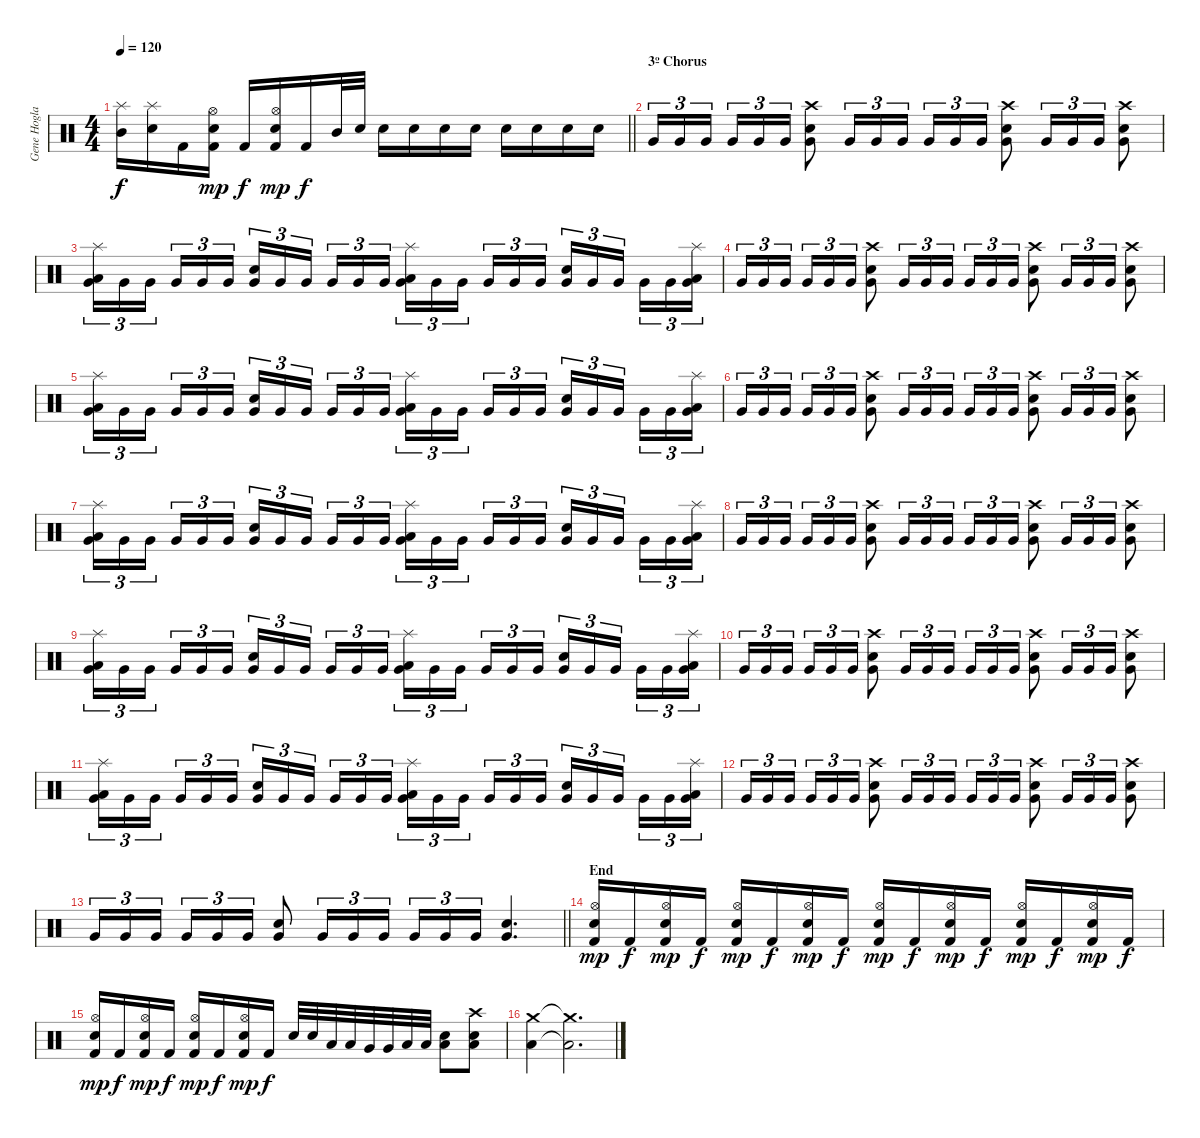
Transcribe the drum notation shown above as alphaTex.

\track ("Gene Hoglan" "Gene Hogla") {instrument percussion}
\staff {score}
\articulation defaults
\ts (4 4)
\tempo 120
\clef neutral
\barLineRight lightlight
\ks c
("Splash (hit)" "Mid Tom (hit)").16{dy f} ("Electric Snare (hit)" "Splash (hit)").16 "Kick (hit) 2".16 ("Hi-Hat (open)" "Snare (hit) 2" "Kick (hit) 2").16{dy mp} "Kick (hit) 2".16{dy f} ("Hi-Hat (open)" "Snare (hit) 2" "Kick (hit) 2").16{dy mp} "Kick (hit) 2".16{dy f} "Mid Tom (hit)".32 "Electric Snare (hit)".32 "Electric Snare (hit)".16 "Electric Snare (hit)".16 "Electric Snare (hit)".16 "Electric Snare (hit)".16 "Electric Snare (hit)".16 "Electric Snare (hit)".16 "Electric Snare (hit)".16 "Electric Snare (hit)".16 |
\section ("" "3º Chorus")
"Very Low Tom (hit)".16{tu (3 2)} "Very Low Tom (hit)".16{tu (3 2)} "Very Low Tom (hit)".16{tu (3 2) beam splitsecondary} "Very Low Tom (hit)".16{tu (3 2)} "Very Low Tom (hit)".16{tu (3 2)} "Very Low Tom (hit)".16{tu (3 2)} ("Very Low Tom (hit)" "Electric Snare (hit)" "Crash high (hit)").8 "Very Low Tom (hit)".16{tu (3 2)} "Very Low Tom (hit)".16{tu (3 2)} "Very Low Tom (hit)".16{tu (3 2)} "Very Low Tom (hit)".16{tu (3 2)} "Very Low Tom (hit)".16{tu (3 2)} "Very Low Tom (hit)".16{tu (3 2)} ("Very Low Tom (hit)" "Electric Snare (hit)" "Crash high (hit)").8 "Very Low Tom (hit)".16{tu (3 2)} "Very Low Tom (hit)".16{tu (3 2)} "Very Low Tom (hit)".16{tu (3 2)} ("Very Low Tom (hit)" "Electric Snare (hit)" "Crash high (hit)").8 |
("Low Tom (hit)" "Very Low Tom (hit)" "Splash (hit)").16{tu (3 2)} "Very Low Tom (hit)".16{tu (3 2)} "Very Low Tom (hit)".16{tu (3 2) beam splitsecondary} "Very Low Tom (hit)".16{tu (3 2)} "Very Low Tom (hit)".16{tu (3 2)} "Very Low Tom (hit)".16{tu (3 2)} ("Very Low Tom (hit)" "Electric Snare (hit)").16{tu (3 2)} "Very Low Tom (hit)".16{tu (3 2)} "Very Low Tom (hit)".16{tu (3 2) beam splitsecondary} "Very Low Tom (hit)".16{tu (3 2)} "Very Low Tom (hit)".16{tu (3 2)} "Very Low Tom (hit)".16{tu (3 2)} ("Low Tom (hit)" "Very Low Tom (hit)" "Splash (hit)").16{tu (3 2)} "Very Low Tom (hit)".16{tu (3 2)} "Very Low Tom (hit)".16{tu (3 2) beam splitsecondary} "Very Low Tom (hit)".16{tu (3 2)} "Very Low Tom (hit)".16{tu (3 2)} "Very Low Tom (hit)".16{tu (3 2)} ("Very Low Tom (hit)" "Electric Snare (hit)").16{tu (3 2)} "Very Low Tom (hit)".16{tu (3 2)} "Very Low Tom (hit)".16{tu (3 2) beam splitsecondary} "Very Low Tom (hit)".16{tu (3 2)} "Very Low Tom (hit)".16{tu (3 2)} ("Low Tom (hit)" "Very Low Tom (hit)" "Splash (hit)").16{tu (3 2)} |
"Very Low Tom (hit)".16{tu (3 2)} "Very Low Tom (hit)".16{tu (3 2)} "Very Low Tom (hit)".16{tu (3 2) beam splitsecondary} "Very Low Tom (hit)".16{tu (3 2)} "Very Low Tom (hit)".16{tu (3 2)} "Very Low Tom (hit)".16{tu (3 2)} ("Very Low Tom (hit)" "Electric Snare (hit)" "Crash high (hit)").8 "Very Low Tom (hit)".16{tu (3 2)} "Very Low Tom (hit)".16{tu (3 2)} "Very Low Tom (hit)".16{tu (3 2)} "Very Low Tom (hit)".16{tu (3 2)} "Very Low Tom (hit)".16{tu (3 2)} "Very Low Tom (hit)".16{tu (3 2)} ("Very Low Tom (hit)" "Electric Snare (hit)" "Crash high (hit)").8 "Very Low Tom (hit)".16{tu (3 2)} "Very Low Tom (hit)".16{tu (3 2)} "Very Low Tom (hit)".16{tu (3 2)} ("Very Low Tom (hit)" "Electric Snare (hit)" "Crash high (hit)").8 |
("Low Tom (hit)" "Very Low Tom (hit)" "Splash (hit)").16{tu (3 2)} "Very Low Tom (hit)".16{tu (3 2)} "Very Low Tom (hit)".16{tu (3 2) beam splitsecondary} "Very Low Tom (hit)".16{tu (3 2)} "Very Low Tom (hit)".16{tu (3 2)} "Very Low Tom (hit)".16{tu (3 2)} ("Very Low Tom (hit)" "Electric Snare (hit)").16{tu (3 2)} "Very Low Tom (hit)".16{tu (3 2)} "Very Low Tom (hit)".16{tu (3 2) beam splitsecondary} "Very Low Tom (hit)".16{tu (3 2)} "Very Low Tom (hit)".16{tu (3 2)} "Very Low Tom (hit)".16{tu (3 2)} ("Low Tom (hit)" "Very Low Tom (hit)" "Splash (hit)").16{tu (3 2)} "Very Low Tom (hit)".16{tu (3 2)} "Very Low Tom (hit)".16{tu (3 2) beam splitsecondary} "Very Low Tom (hit)".16{tu (3 2)} "Very Low Tom (hit)".16{tu (3 2)} "Very Low Tom (hit)".16{tu (3 2)} ("Very Low Tom (hit)" "Electric Snare (hit)").16{tu (3 2)} "Very Low Tom (hit)".16{tu (3 2)} "Very Low Tom (hit)".16{tu (3 2) beam splitsecondary} "Very Low Tom (hit)".16{tu (3 2)} "Very Low Tom (hit)".16{tu (3 2)} ("Low Tom (hit)" "Very Low Tom (hit)" "Splash (hit)").16{tu (3 2)} |
"Very Low Tom (hit)".16{tu (3 2)} "Very Low Tom (hit)".16{tu (3 2)} "Very Low Tom (hit)".16{tu (3 2) beam splitsecondary} "Very Low Tom (hit)".16{tu (3 2)} "Very Low Tom (hit)".16{tu (3 2)} "Very Low Tom (hit)".16{tu (3 2)} ("Very Low Tom (hit)" "Electric Snare (hit)" "Crash high (hit)").8 "Very Low Tom (hit)".16{tu (3 2)} "Very Low Tom (hit)".16{tu (3 2)} "Very Low Tom (hit)".16{tu (3 2)} "Very Low Tom (hit)".16{tu (3 2)} "Very Low Tom (hit)".16{tu (3 2)} "Very Low Tom (hit)".16{tu (3 2)} ("Very Low Tom (hit)" "Electric Snare (hit)" "Crash high (hit)").8 "Very Low Tom (hit)".16{tu (3 2)} "Very Low Tom (hit)".16{tu (3 2)} "Very Low Tom (hit)".16{tu (3 2)} ("Very Low Tom (hit)" "Electric Snare (hit)" "Crash high (hit)").8 |
("Low Tom (hit)" "Very Low Tom (hit)" "Splash (hit)").16{tu (3 2)} "Very Low Tom (hit)".16{tu (3 2)} "Very Low Tom (hit)".16{tu (3 2) beam splitsecondary} "Very Low Tom (hit)".16{tu (3 2)} "Very Low Tom (hit)".16{tu (3 2)} "Very Low Tom (hit)".16{tu (3 2)} ("Very Low Tom (hit)" "Electric Snare (hit)").16{tu (3 2)} "Very Low Tom (hit)".16{tu (3 2)} "Very Low Tom (hit)".16{tu (3 2) beam splitsecondary} "Very Low Tom (hit)".16{tu (3 2)} "Very Low Tom (hit)".16{tu (3 2)} "Very Low Tom (hit)".16{tu (3 2)} ("Low Tom (hit)" "Very Low Tom (hit)" "Splash (hit)").16{tu (3 2)} "Very Low Tom (hit)".16{tu (3 2)} "Very Low Tom (hit)".16{tu (3 2) beam splitsecondary} "Very Low Tom (hit)".16{tu (3 2)} "Very Low Tom (hit)".16{tu (3 2)} "Very Low Tom (hit)".16{tu (3 2)} ("Very Low Tom (hit)" "Electric Snare (hit)").16{tu (3 2)} "Very Low Tom (hit)".16{tu (3 2)} "Very Low Tom (hit)".16{tu (3 2) beam splitsecondary} "Very Low Tom (hit)".16{tu (3 2)} "Very Low Tom (hit)".16{tu (3 2)} ("Low Tom (hit)" "Very Low Tom (hit)" "Splash (hit)").16{tu (3 2)} |
"Very Low Tom (hit)".16{tu (3 2)} "Very Low Tom (hit)".16{tu (3 2)} "Very Low Tom (hit)".16{tu (3 2) beam splitsecondary} "Very Low Tom (hit)".16{tu (3 2)} "Very Low Tom (hit)".16{tu (3 2)} "Very Low Tom (hit)".16{tu (3 2)} ("Very Low Tom (hit)" "Electric Snare (hit)" "Crash high (hit)").8 "Very Low Tom (hit)".16{tu (3 2)} "Very Low Tom (hit)".16{tu (3 2)} "Very Low Tom (hit)".16{tu (3 2)} "Very Low Tom (hit)".16{tu (3 2)} "Very Low Tom (hit)".16{tu (3 2)} "Very Low Tom (hit)".16{tu (3 2)} ("Very Low Tom (hit)" "Electric Snare (hit)" "Crash high (hit)").8 "Very Low Tom (hit)".16{tu (3 2)} "Very Low Tom (hit)".16{tu (3 2)} "Very Low Tom (hit)".16{tu (3 2)} ("Very Low Tom (hit)" "Electric Snare (hit)" "Crash high (hit)").8 |
("Low Tom (hit)" "Very Low Tom (hit)" "Splash (hit)").16{tu (3 2)} "Very Low Tom (hit)".16{tu (3 2)} "Very Low Tom (hit)".16{tu (3 2) beam splitsecondary} "Very Low Tom (hit)".16{tu (3 2)} "Very Low Tom (hit)".16{tu (3 2)} "Very Low Tom (hit)".16{tu (3 2)} ("Very Low Tom (hit)" "Electric Snare (hit)").16{tu (3 2)} "Very Low Tom (hit)".16{tu (3 2)} "Very Low Tom (hit)".16{tu (3 2) beam splitsecondary} "Very Low Tom (hit)".16{tu (3 2)} "Very Low Tom (hit)".16{tu (3 2)} "Very Low Tom (hit)".16{tu (3 2)} ("Low Tom (hit)" "Very Low Tom (hit)" "Splash (hit)").16{tu (3 2)} "Very Low Tom (hit)".16{tu (3 2)} "Very Low Tom (hit)".16{tu (3 2) beam splitsecondary} "Very Low Tom (hit)".16{tu (3 2)} "Very Low Tom (hit)".16{tu (3 2)} "Very Low Tom (hit)".16{tu (3 2)} ("Very Low Tom (hit)" "Electric Snare (hit)").16{tu (3 2)} "Very Low Tom (hit)".16{tu (3 2)} "Very Low Tom (hit)".16{tu (3 2) beam splitsecondary} "Very Low Tom (hit)".16{tu (3 2)} "Very Low Tom (hit)".16{tu (3 2)} ("Low Tom (hit)" "Very Low Tom (hit)" "Splash (hit)").16{tu (3 2)} |
"Very Low Tom (hit)".16{tu (3 2)} "Very Low Tom (hit)".16{tu (3 2)} "Very Low Tom (hit)".16{tu (3 2) beam splitsecondary} "Very Low Tom (hit)".16{tu (3 2)} "Very Low Tom (hit)".16{tu (3 2)} "Very Low Tom (hit)".16{tu (3 2)} ("Very Low Tom (hit)" "Electric Snare (hit)" "Crash high (hit)").8 "Very Low Tom (hit)".16{tu (3 2)} "Very Low Tom (hit)".16{tu (3 2)} "Very Low Tom (hit)".16{tu (3 2)} "Very Low Tom (hit)".16{tu (3 2)} "Very Low Tom (hit)".16{tu (3 2)} "Very Low Tom (hit)".16{tu (3 2)} ("Very Low Tom (hit)" "Electric Snare (hit)" "Crash high (hit)").8 "Very Low Tom (hit)".16{tu (3 2)} "Very Low Tom (hit)".16{tu (3 2)} "Very Low Tom (hit)".16{tu (3 2)} ("Very Low Tom (hit)" "Electric Snare (hit)" "Crash high (hit)").8 |
("Low Tom (hit)" "Very Low Tom (hit)" "Splash (hit)").16{tu (3 2)} "Very Low Tom (hit)".16{tu (3 2)} "Very Low Tom (hit)".16{tu (3 2) beam splitsecondary} "Very Low Tom (hit)".16{tu (3 2)} "Very Low Tom (hit)".16{tu (3 2)} "Very Low Tom (hit)".16{tu (3 2)} ("Very Low Tom (hit)" "Electric Snare (hit)").16{tu (3 2)} "Very Low Tom (hit)".16{tu (3 2)} "Very Low Tom (hit)".16{tu (3 2) beam splitsecondary} "Very Low Tom (hit)".16{tu (3 2)} "Very Low Tom (hit)".16{tu (3 2)} "Very Low Tom (hit)".16{tu (3 2)} ("Low Tom (hit)" "Very Low Tom (hit)" "Splash (hit)").16{tu (3 2)} "Very Low Tom (hit)".16{tu (3 2)} "Very Low Tom (hit)".16{tu (3 2) beam splitsecondary} "Very Low Tom (hit)".16{tu (3 2)} "Very Low Tom (hit)".16{tu (3 2)} "Very Low Tom (hit)".16{tu (3 2)} ("Very Low Tom (hit)" "Electric Snare (hit)").16{tu (3 2)} "Very Low Tom (hit)".16{tu (3 2)} "Very Low Tom (hit)".16{tu (3 2) beam splitsecondary} "Very Low Tom (hit)".16{tu (3 2)} "Very Low Tom (hit)".16{tu (3 2)} ("Low Tom (hit)" "Very Low Tom (hit)" "Splash (hit)").16{tu (3 2)} |
"Very Low Tom (hit)".16{tu (3 2)} "Very Low Tom (hit)".16{tu (3 2)} "Very Low Tom (hit)".16{tu (3 2) beam splitsecondary} "Very Low Tom (hit)".16{tu (3 2)} "Very Low Tom (hit)".16{tu (3 2)} "Very Low Tom (hit)".16{tu (3 2)} ("Very Low Tom (hit)" "Electric Snare (hit)" "Crash high (hit)").8 "Very Low Tom (hit)".16{tu (3 2)} "Very Low Tom (hit)".16{tu (3 2)} "Very Low Tom (hit)".16{tu (3 2)} "Very Low Tom (hit)".16{tu (3 2)} "Very Low Tom (hit)".16{tu (3 2)} "Very Low Tom (hit)".16{tu (3 2)} ("Very Low Tom (hit)" "Electric Snare (hit)" "Crash high (hit)").8 "Very Low Tom (hit)".16{tu (3 2)} "Very Low Tom (hit)".16{tu (3 2)} "Very Low Tom (hit)".16{tu (3 2)} ("Very Low Tom (hit)" "Electric Snare (hit)" "Crash high (hit)").8 |
\barLineRight lightlight "Very Low Tom (hit)".16{tu (3 2)} "Very Low Tom (hit)".16{tu (3 2)} "Very Low Tom (hit)".16{tu (3 2) beam splitsecondary} "Very Low Tom (hit)".16{tu (3 2)} "Very Low Tom (hit)".16{tu (3 2)} "Very Low Tom (hit)".16{tu (3 2)}
("Very Low Tom (hit)" "Electric Snare (hit)").8 "Very Low Tom (hit)".16{tu (3 2)} "Very Low Tom (hit)".16{tu (3 2)} "Very Low Tom (hit)".16{tu (3 2)} "Very Low Tom (hit)".16{tu (3 2)} "Very Low Tom (hit)".16{tu (3 2)} "Very Low Tom (hit)".16{tu (3 2)} ("Very Low Tom (hit)" "Electric Snare (hit)").4{d} |
\section ("" "End")
("Hi-Hat (open)" "Snare (hit) 2" "Kick (hit) 2").16{dy mp} "Kick (hit) 2".16{dy f} ("Hi-Hat (open)" "Snare (hit) 2" "Kick (hit) 2").16{dy mp} "Kick (hit) 2".16{dy f} ("Hi-Hat (open)" "Snare (hit) 2" "Kick (hit) 2").16{dy mp} "Kick (hit) 2".16{dy f} ("Hi-Hat (open)" "Snare (hit) 2" "Kick (hit) 2").16{dy mp} "Kick (hit) 2".16{dy f} ("Hi-Hat (open)" "Snare (hit) 2" "Kick (hit) 2").16{dy mp} "Kick (hit) 2".16{dy f} ("Hi-Hat (open)" "Snare (hit) 2" "Kick (hit) 2").16{dy mp} "Kick (hit) 2".16{dy f} ("Hi-Hat (open)" "Snare (hit) 2" "Kick (hit) 2").16{dy mp} "Kick (hit) 2".16{dy f} ("Hi-Hat (open)" "Snare (hit) 2" "Kick (hit) 2").16{dy mp} "Kick (hit) 2".16{dy f} |
("Hi-Hat (open)" "Snare (hit) 2" "Kick (hit) 2").16{dy mp} "Kick (hit) 2".16{dy f} ("Hi-Hat (open)" "Snare (hit) 2" "Kick (hit) 2").16{dy mp} "Kick (hit) 2".16{dy f} ("Hi-Hat (open)" "Snare (hit) 2" "Kick (hit) 2").16{dy mp} "Kick (hit) 2".16{dy f} ("Hi-Hat (open)" "Snare (hit) 2" "Kick (hit) 2").16{dy mp} "Kick (hit) 2".16{dy f} "Electric Snare (hit)".32 "Electric Snare (hit)".32 "Low Tom (hit)".32 "Low Tom (hit)".32 "Very Low Tom (hit)".32 "Very Low Tom (hit)".32 "Low Floor Tom (hit)".32 "Low Floor Tom (hit)".32 ("Electric Snare (hit)" "Low Tom (hit)").8 ("Crash high (hit)" "Electric Snare (hit)" "Low Tom (hit)").8 |
("Crash medium (hit)" "Low Tom (hit)").4 ("Crash medium (hit)"{t} "Low Tom (hit)"{t}).2{d volume 0}
